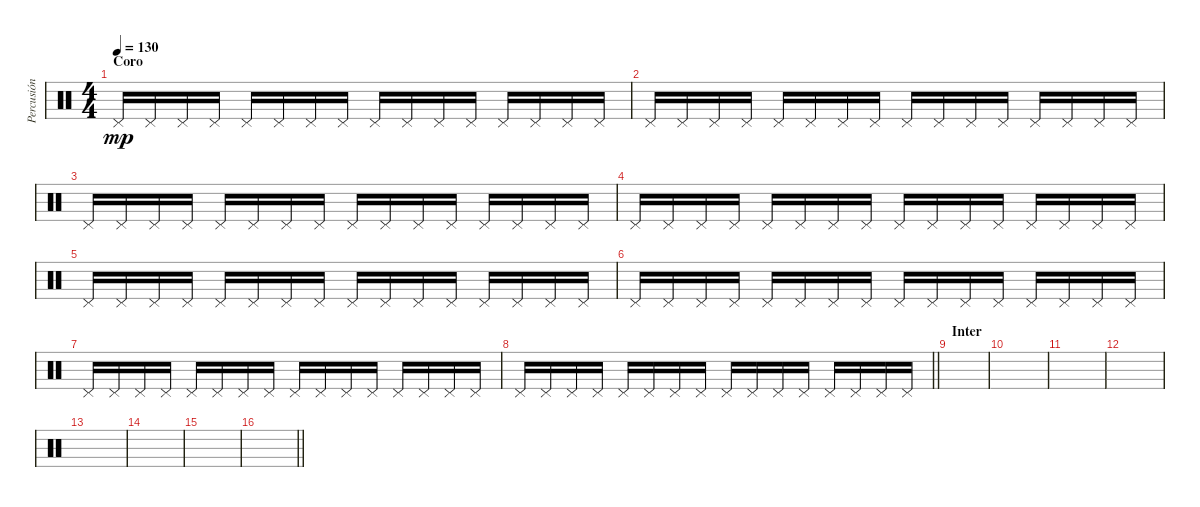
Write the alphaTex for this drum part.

\track ("Percusión" "Percusión") {instrument percussion}
\staff {score}
\articulation defaults
\ts (4 4)
\section ("" "Coro")
\tempo 130
\clef neutral
\ks c "Pedal Hi-Hat (hit)".16{dy mp} "Pedal Hi-Hat (hit)".16 "Pedal Hi-Hat (hit)".16 "Pedal Hi-Hat (hit)".16 "Pedal Hi-Hat (hit)".16 "Pedal Hi-Hat (hit)".16 "Pedal Hi-Hat (hit)".16 "Pedal Hi-Hat (hit)".16 "Pedal Hi-Hat (hit)".16 "Pedal Hi-Hat (hit)".16 "Pedal Hi-Hat (hit)".16 "Pedal Hi-Hat (hit)".16 "Pedal Hi-Hat (hit)".16 "Pedal Hi-Hat (hit)".16 "Pedal Hi-Hat (hit)".16 "Pedal Hi-Hat (hit)".16
|
"Pedal Hi-Hat (hit)".16 "Pedal Hi-Hat (hit)".16 "Pedal Hi-Hat (hit)".16 "Pedal Hi-Hat (hit)".16 "Pedal Hi-Hat (hit)".16 "Pedal Hi-Hat (hit)".16 "Pedal Hi-Hat (hit)".16 "Pedal Hi-Hat (hit)".16 "Pedal Hi-Hat (hit)".16 "Pedal Hi-Hat (hit)".16 "Pedal Hi-Hat (hit)".16 "Pedal Hi-Hat (hit)".16 "Pedal Hi-Hat (hit)".16 "Pedal Hi-Hat (hit)".16 "Pedal Hi-Hat (hit)".16 "Pedal Hi-Hat (hit)".16 |
"Pedal Hi-Hat (hit)".16 "Pedal Hi-Hat (hit)".16 "Pedal Hi-Hat (hit)".16 "Pedal Hi-Hat (hit)".16 "Pedal Hi-Hat (hit)".16 "Pedal Hi-Hat (hit)".16 "Pedal Hi-Hat (hit)".16 "Pedal Hi-Hat (hit)".16 "Pedal Hi-Hat (hit)".16 "Pedal Hi-Hat (hit)".16 "Pedal Hi-Hat (hit)".16 "Pedal Hi-Hat (hit)".16 "Pedal Hi-Hat (hit)".16 "Pedal Hi-Hat (hit)".16 "Pedal Hi-Hat (hit)".16 "Pedal Hi-Hat (hit)".16 |
"Pedal Hi-Hat (hit)".16 "Pedal Hi-Hat (hit)".16 "Pedal Hi-Hat (hit)".16 "Pedal Hi-Hat (hit)".16 "Pedal Hi-Hat (hit)".16 "Pedal Hi-Hat (hit)".16 "Pedal Hi-Hat (hit)".16 "Pedal Hi-Hat (hit)".16 "Pedal Hi-Hat (hit)".16 "Pedal Hi-Hat (hit)".16 "Pedal Hi-Hat (hit)".16 "Pedal Hi-Hat (hit)".16 "Pedal Hi-Hat (hit)".16 "Pedal Hi-Hat (hit)".16 "Pedal Hi-Hat (hit)".16 "Pedal Hi-Hat (hit)".16 |
"Pedal Hi-Hat (hit)".16 "Pedal Hi-Hat (hit)".16 "Pedal Hi-Hat (hit)".16 "Pedal Hi-Hat (hit)".16 "Pedal Hi-Hat (hit)".16 "Pedal Hi-Hat (hit)".16 "Pedal Hi-Hat (hit)".16 "Pedal Hi-Hat (hit)".16 "Pedal Hi-Hat (hit)".16 "Pedal Hi-Hat (hit)".16 "Pedal Hi-Hat (hit)".16 "Pedal Hi-Hat (hit)".16 "Pedal Hi-Hat (hit)".16 "Pedal Hi-Hat (hit)".16 "Pedal Hi-Hat (hit)".16 "Pedal Hi-Hat (hit)".16 |
"Pedal Hi-Hat (hit)".16 "Pedal Hi-Hat (hit)".16 "Pedal Hi-Hat (hit)".16 "Pedal Hi-Hat (hit)".16 "Pedal Hi-Hat (hit)".16 "Pedal Hi-Hat (hit)".16 "Pedal Hi-Hat (hit)".16 "Pedal Hi-Hat (hit)".16 "Pedal Hi-Hat (hit)".16 "Pedal Hi-Hat (hit)".16 "Pedal Hi-Hat (hit)".16 "Pedal Hi-Hat (hit)".16 "Pedal Hi-Hat (hit)".16 "Pedal Hi-Hat (hit)".16 "Pedal Hi-Hat (hit)".16 "Pedal Hi-Hat (hit)".16 |
"Pedal Hi-Hat (hit)".16 "Pedal Hi-Hat (hit)".16 "Pedal Hi-Hat (hit)".16 "Pedal Hi-Hat (hit)".16 "Pedal Hi-Hat (hit)".16 "Pedal Hi-Hat (hit)".16 "Pedal Hi-Hat (hit)".16 "Pedal Hi-Hat (hit)".16 "Pedal Hi-Hat (hit)".16 "Pedal Hi-Hat (hit)".16 "Pedal Hi-Hat (hit)".16 "Pedal Hi-Hat (hit)".16 "Pedal Hi-Hat (hit)".16 "Pedal Hi-Hat (hit)".16 "Pedal Hi-Hat (hit)".16 "Pedal Hi-Hat (hit)".16 |
\barLineRight lightlight "Pedal Hi-Hat (hit)".16 "Pedal Hi-Hat (hit)".16 "Pedal Hi-Hat (hit)".16 "Pedal Hi-Hat (hit)".16 "Pedal Hi-Hat (hit)".16 "Pedal Hi-Hat (hit)".16 "Pedal Hi-Hat (hit)".16 "Pedal Hi-Hat (hit)".16 "Pedal Hi-Hat (hit)".16 "Pedal Hi-Hat (hit)".16 "Pedal Hi-Hat (hit)".16 "Pedal Hi-Hat (hit)".16 "Pedal Hi-Hat (hit)".16 "Pedal Hi-Hat (hit)".16 "Pedal Hi-Hat (hit)".16 "Pedal Hi-Hat (hit)".16
|
\section ("" "Inter")
|
|
|
|
|
|
|
\barLineRight lightlight
